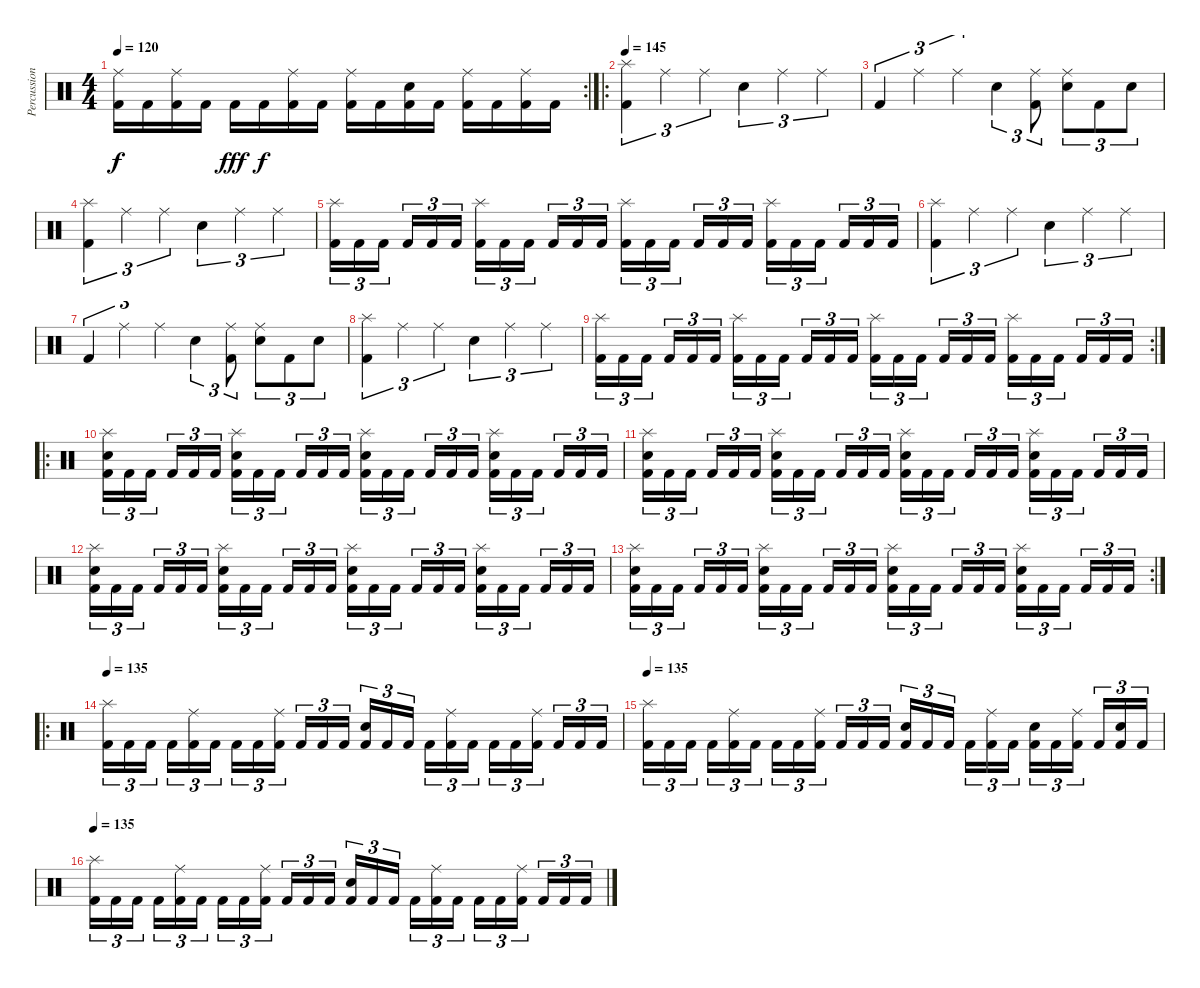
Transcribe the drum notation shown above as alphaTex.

\track ("Percussions" "Percussion") {instrument percussion}
\staff {score}
\articulation defaults
\rc 2
\ts (4 4)
\tempo 120
\clef neutral
\ks c
("Ride (middle)" "Kick (hit) 2").16{dy f} "Kick (hit) 2".16 ("Ride (middle)" "Kick (hit) 2").16 "Kick (hit) 2".16 "Kick (hit) 2".16{dy fff} "Kick (hit) 2".16{dy f} ("Ride (middle)" "Kick (hit) 2").16 "Kick (hit) 2".16 ("Ride (middle)" "Kick (hit) 2").16 "Kick (hit) 2".16 ("Electric Snare (hit)" "Kick (hit) 2").16 "Kick (hit) 2".16 ("Ride (middle)" "Kick (hit) 2").16 "Kick (hit) 2".16 ("Ride (middle)" "Kick (hit) 2").16 "Kick (hit) 2".16 |
\ro
\tempo 145
("Splash (hit)" "Kick (hit) 2").4{tu (3 2)} "Ride (middle)".4{tu (3 2)} "Ride (middle)".4{tu (3 2)} "Electric Snare (hit)".4{tu (3 2)} "Ride (middle)".4{tu (3 2)} "Ride (middle)".4{tu (3 2)} |
"Kick (hit) 2".4{tu (3 2)} "Ride (middle)".4{tu (3 2)} "Ride (middle)".4{tu (3 2)} "Electric Snare (hit)".4{tu (3 2)} ("Ride (middle)" "Kick (hit) 2").8{tu (3 2)} ("Ride (middle)" "Electric Snare (hit)").8{tu (3 2)} "Kick (hit) 2".8{tu (3 2)} "Electric Snare (hit)".8{tu (3 2)} |
("Splash (hit)" "Kick (hit) 2").4{tu (3 2)} "Ride (middle)".4{tu (3 2)} "Ride (middle)".4{tu (3 2)} "Electric Snare (hit)".4{tu (3 2)} "Ride (middle)".4{tu (3 2)} "Ride (middle)".4{tu (3 2)} |
("Splash (hit)" "Kick (hit) 2").16{tu (3 2)} "Kick (hit) 2".16{tu (3 2)} "Kick (hit) 2".16{tu (3 2)} "Kick (hit) 2".16{tu (3 2)} "Kick (hit) 2".16{tu (3 2)} "Kick (hit) 2".16{tu (3 2)} ("Splash (hit)" "Kick (hit) 2").16{tu (3 2)} "Kick (hit) 2".16{tu (3 2)} "Kick (hit) 2".16{tu (3 2)} "Kick (hit) 2".16{tu (3 2)} "Kick (hit) 2".16{tu (3 2)} "Kick (hit) 2".16{tu (3 2)} ("Splash (hit)" "Kick (hit) 2").16{tu (3 2)} "Kick (hit) 2".16{tu (3 2)} "Kick (hit) 2".16{tu (3 2)} "Kick (hit) 2".16{tu (3 2)} "Kick (hit) 2".16{tu (3 2)} "Kick (hit) 2".16{tu (3 2)} ("Splash (hit)" "Kick (hit) 2").16{tu (3 2)} "Kick (hit) 2".16{tu (3 2)} "Kick (hit) 2".16{tu (3 2)} "Kick (hit) 2".16{tu (3 2)} "Kick (hit) 2".16{tu (3 2)} "Kick (hit) 2".16{tu (3 2)} |
("Splash (hit)" "Kick (hit) 2").4{tu (3 2)} "Ride (middle)".4{tu (3 2)} "Ride (middle)".4{tu (3 2)} "Electric Snare (hit)".4{tu (3 2)} "Ride (middle)".4{tu (3 2)} "Ride (middle)".4{tu (3 2)} |
"Kick (hit) 2".4{tu (3 2)} "Ride (middle)".4{tu (3 2)} "Ride (middle)".4{tu (3 2)} "Electric Snare (hit)".4{tu (3 2)} ("Ride (middle)" "Kick (hit) 2").8{tu (3 2)} ("Ride (middle)" "Electric Snare (hit)").8{tu (3 2)} "Kick (hit) 2".8{tu (3 2)} "Electric Snare (hit)".8{tu (3 2)} |
("Splash (hit)" "Kick (hit) 2").4{tu (3 2)} "Ride (middle)".4{tu (3 2)} "Ride (middle)".4{tu (3 2)} "Electric Snare (hit)".4{tu (3 2)} "Ride (middle)".4{tu (3 2)} "Ride (middle)".4{tu (3 2)} |
\rc 2
("Splash (hit)" "Kick (hit) 2").16{tu (3 2)} "Kick (hit) 2".16{tu (3 2)} "Kick (hit) 2".16{tu (3 2)} "Kick (hit) 2".16{tu (3 2)} "Kick (hit) 2".16{tu (3 2)} "Kick (hit) 2".16{tu (3 2)} ("Splash (hit)" "Kick (hit) 2").16{tu (3 2)} "Kick (hit) 2".16{tu (3 2)} "Kick (hit) 2".16{tu (3 2)} "Kick (hit) 2".16{tu (3 2)} "Kick (hit) 2".16{tu (3 2)} "Kick (hit) 2".16{tu (3 2)} ("Splash (hit)" "Kick (hit) 2").16{tu (3 2)} "Kick (hit) 2".16{tu (3 2)} "Kick (hit) 2".16{tu (3 2)} "Kick (hit) 2".16{tu (3 2)} "Kick (hit) 2".16{tu (3 2)} "Kick (hit) 2".16{tu (3 2)} ("Splash (hit)" "Kick (hit) 2").16{tu (3 2)} "Kick (hit) 2".16{tu (3 2)} "Kick (hit) 2".16{tu (3 2)} "Kick (hit) 2".16{tu (3 2)} "Kick (hit) 2".16{tu (3 2)} "Kick (hit) 2".16{tu (3 2)} |
\ro
("Splash (hit)" "Electric Snare (hit)" "Kick (hit) 2").16{tu (3 2)} "Kick (hit) 2".16{tu (3 2)} "Kick (hit) 2".16{tu (3 2)} "Kick (hit) 2".16{tu (3 2)} "Kick (hit) 2".16{tu (3 2)} "Kick (hit) 2".16{tu (3 2)} ("Splash (hit)" "Electric Snare (hit)" "Kick (hit) 2").16{tu (3 2)} "Kick (hit) 2".16{tu (3 2)} "Kick (hit) 2".16{tu (3 2)} "Kick (hit) 2".16{tu (3 2)} "Kick (hit) 2".16{tu (3 2)} "Kick (hit) 2".16{tu (3 2)} ("Splash (hit)" "Electric Snare (hit)" "Kick (hit) 2").16{tu (3 2)} "Kick (hit) 2".16{tu (3 2)} "Kick (hit) 2".16{tu (3 2)} "Kick (hit) 2".16{tu (3 2)} "Kick (hit) 2".16{tu (3 2)} "Kick (hit) 2".16{tu (3 2)} ("Splash (hit)" "Electric Snare (hit)" "Kick (hit) 2").16{tu (3 2)} "Kick (hit) 2".16{tu (3 2)} "Kick (hit) 2".16{tu (3 2)} "Kick (hit) 2".16{tu (3 2)} "Kick (hit) 2".16{tu (3 2)} "Kick (hit) 2".16{tu (3 2)} |
("Splash (hit)" "Electric Snare (hit)" "Kick (hit) 2").16{tu (3 2)} "Kick (hit) 2".16{tu (3 2)} "Kick (hit) 2".16{tu (3 2)} "Kick (hit) 2".16{tu (3 2)} "Kick (hit) 2".16{tu (3 2)} "Kick (hit) 2".16{tu (3 2)} ("Splash (hit)" "Electric Snare (hit)" "Kick (hit) 2").16{tu (3 2)} "Kick (hit) 2".16{tu (3 2)} "Kick (hit) 2".16{tu (3 2)} "Kick (hit) 2".16{tu (3 2)} "Kick (hit) 2".16{tu (3 2)} "Kick (hit) 2".16{tu (3 2)} ("Splash (hit)" "Electric Snare (hit)" "Kick (hit) 2").16{tu (3 2)} "Kick (hit) 2".16{tu (3 2)} "Kick (hit) 2".16{tu (3 2)} "Kick (hit) 2".16{tu (3 2)} "Kick (hit) 2".16{tu (3 2)} "Kick (hit) 2".16{tu (3 2)} ("Splash (hit)" "Electric Snare (hit)" "Kick (hit) 2").16{tu (3 2)} "Kick (hit) 2".16{tu (3 2)} "Kick (hit) 2".16{tu (3 2)} "Kick (hit) 2".16{tu (3 2)} "Kick (hit) 2".16{tu (3 2)} "Kick (hit) 2".16{tu (3 2)} |
("Splash (hit)" "Electric Snare (hit)" "Kick (hit) 2").16{tu (3 2)} "Kick (hit) 2".16{tu (3 2)} "Kick (hit) 2".16{tu (3 2)} "Kick (hit) 2".16{tu (3 2)} "Kick (hit) 2".16{tu (3 2)} "Kick (hit) 2".16{tu (3 2)} ("Splash (hit)" "Electric Snare (hit)" "Kick (hit) 2").16{tu (3 2)} "Kick (hit) 2".16{tu (3 2)} "Kick (hit) 2".16{tu (3 2)} "Kick (hit) 2".16{tu (3 2)} "Kick (hit) 2".16{tu (3 2)} "Kick (hit) 2".16{tu (3 2)} ("Splash (hit)" "Electric Snare (hit)" "Kick (hit) 2").16{tu (3 2)} "Kick (hit) 2".16{tu (3 2)} "Kick (hit) 2".16{tu (3 2)} "Kick (hit) 2".16{tu (3 2)} "Kick (hit) 2".16{tu (3 2)} "Kick (hit) 2".16{tu (3 2)} ("Splash (hit)" "Electric Snare (hit)" "Kick (hit) 2").16{tu (3 2)} "Kick (hit) 2".16{tu (3 2)} "Kick (hit) 2".16{tu (3 2)} "Kick (hit) 2".16{tu (3 2)} "Kick (hit) 2".16{tu (3 2)} "Kick (hit) 2".16{tu (3 2)} |
\rc 2
("Splash (hit)" "Electric Snare (hit)" "Kick (hit) 2").16{tu (3 2)} "Kick (hit) 2".16{tu (3 2)} "Kick (hit) 2".16{tu (3 2)} "Kick (hit) 2".16{tu (3 2)} "Kick (hit) 2".16{tu (3 2)} "Kick (hit) 2".16{tu (3 2)} ("Splash (hit)" "Electric Snare (hit)" "Kick (hit) 2").16{tu (3 2)} "Kick (hit) 2".16{tu (3 2)} "Kick (hit) 2".16{tu (3 2)} "Kick (hit) 2".16{tu (3 2)} "Kick (hit) 2".16{tu (3 2)} "Kick (hit) 2".16{tu (3 2)} ("Splash (hit)" "Electric Snare (hit)" "Kick (hit) 2").16{tu (3 2)} "Kick (hit) 2".16{tu (3 2)} "Kick (hit) 2".16{tu (3 2)} "Kick (hit) 2".16{tu (3 2)} "Kick (hit) 2".16{tu (3 2)} "Kick (hit) 2".16{tu (3 2)} ("Splash (hit)" "Electric Snare (hit)" "Kick (hit) 2").16{tu (3 2)} "Kick (hit) 2".16{tu (3 2)} "Kick (hit) 2".16{tu (3 2)} "Kick (hit) 2".16{tu (3 2)} "Kick (hit) 2".16{tu (3 2)} "Kick (hit) 2".16{tu (3 2)} |
\ro
\tempo 135
("Splash (hit)" "Kick (hit) 2").16{tu (3 2)} "Kick (hit) 2".16{tu (3 2)} "Kick (hit) 2".16{tu (3 2)} "Kick (hit) 2".16{tu (3 2)} ("Ride (middle)" "Kick (hit) 2").16{tu (3 2)} "Kick (hit) 2".16{tu (3 2)} "Kick (hit) 2".16{tu (3 2)} "Kick (hit) 2".16{tu (3 2)} ("Ride (middle)" "Kick (hit) 2").16{tu (3 2)} "Kick (hit) 2".16{tu (3 2)} "Kick (hit) 2".16{tu (3 2)} "Kick (hit) 2".16{tu (3 2)} ("Electric Snare (hit)" "Kick (hit) 2").16{tu (3 2)} "Kick (hit) 2".16{tu (3 2)} "Kick (hit) 2".16{tu (3 2)} "Kick (hit) 2".16{tu (3 2)} ("Ride (middle)" "Kick (hit) 2").16{tu (3 2)} "Kick (hit) 2".16{tu (3 2)} "Kick (hit) 2".16{tu (3 2)} "Kick (hit) 2".16{tu (3 2)} ("Ride (middle)" "Kick (hit) 2").16{tu (3 2)} "Kick (hit) 2".16{tu (3 2)} "Kick (hit) 2".16{tu (3 2)} "Kick (hit) 2".16{tu (3 2)} |
\tempo 135
("Splash (hit)" "Kick (hit) 2").16{tu (3 2)} "Kick (hit) 2".16{tu (3 2)} "Kick (hit) 2".16{tu (3 2)} "Kick (hit) 2".16{tu (3 2)} ("Ride (middle)" "Kick (hit) 2").16{tu (3 2)} "Kick (hit) 2".16{tu (3 2)} "Kick (hit) 2".16{tu (3 2)} "Kick (hit) 2".16{tu (3 2)} ("Ride (middle)" "Kick (hit) 2").16{tu (3 2)} "Kick (hit) 2".16{tu (3 2)} "Kick (hit) 2".16{tu (3 2)} "Kick (hit) 2".16{tu (3 2)} ("Electric Snare (hit)" "Kick (hit) 2").16{tu (3 2)} "Kick (hit) 2".16{tu (3 2)} "Kick (hit) 2".16{tu (3 2)} "Kick (hit) 2".16{tu (3 2)} ("Ride (middle)" "Kick (hit) 2").16{tu (3 2)} "Kick (hit) 2".16{tu (3 2)} ("Electric Snare (hit)" "Kick (hit) 2").16{tu (3 2)} "Kick (hit) 2".16{tu (3 2)} ("Ride (middle)" "Kick (hit) 2").16{tu (3 2)} "Kick (hit) 2".16{tu (3 2)} ("Electric Snare (hit)" "Kick (hit) 2").16{tu (3 2)} "Kick (hit) 2".16{tu (3 2)} |
\tempo 135
("Splash (hit)" "Kick (hit) 2").16{tu (3 2)} "Kick (hit) 2".16{tu (3 2)} "Kick (hit) 2".16{tu (3 2)} "Kick (hit) 2".16{tu (3 2)} ("Ride (middle)" "Kick (hit) 2").16{tu (3 2)} "Kick (hit) 2".16{tu (3 2)} "Kick (hit) 2".16{tu (3 2)} "Kick (hit) 2".16{tu (3 2)} ("Ride (middle)" "Kick (hit) 2").16{tu (3 2)} "Kick (hit) 2".16{tu (3 2)} "Kick (hit) 2".16{tu (3 2)} "Kick (hit) 2".16{tu (3 2)} ("Electric Snare (hit)" "Kick (hit) 2").16{tu (3 2)} "Kick (hit) 2".16{tu (3 2)} "Kick (hit) 2".16{tu (3 2)} "Kick (hit) 2".16{tu (3 2)} ("Ride (middle)" "Kick (hit) 2").16{tu (3 2)} "Kick (hit) 2".16{tu (3 2)} "Kick (hit) 2".16{tu (3 2)} "Kick (hit) 2".16{tu (3 2)} ("Ride (middle)" "Kick (hit) 2").16{tu (3 2)} "Kick (hit) 2".16{tu (3 2)} "Kick (hit) 2".16{tu (3 2)} "Kick (hit) 2".16{tu (3 2)}
